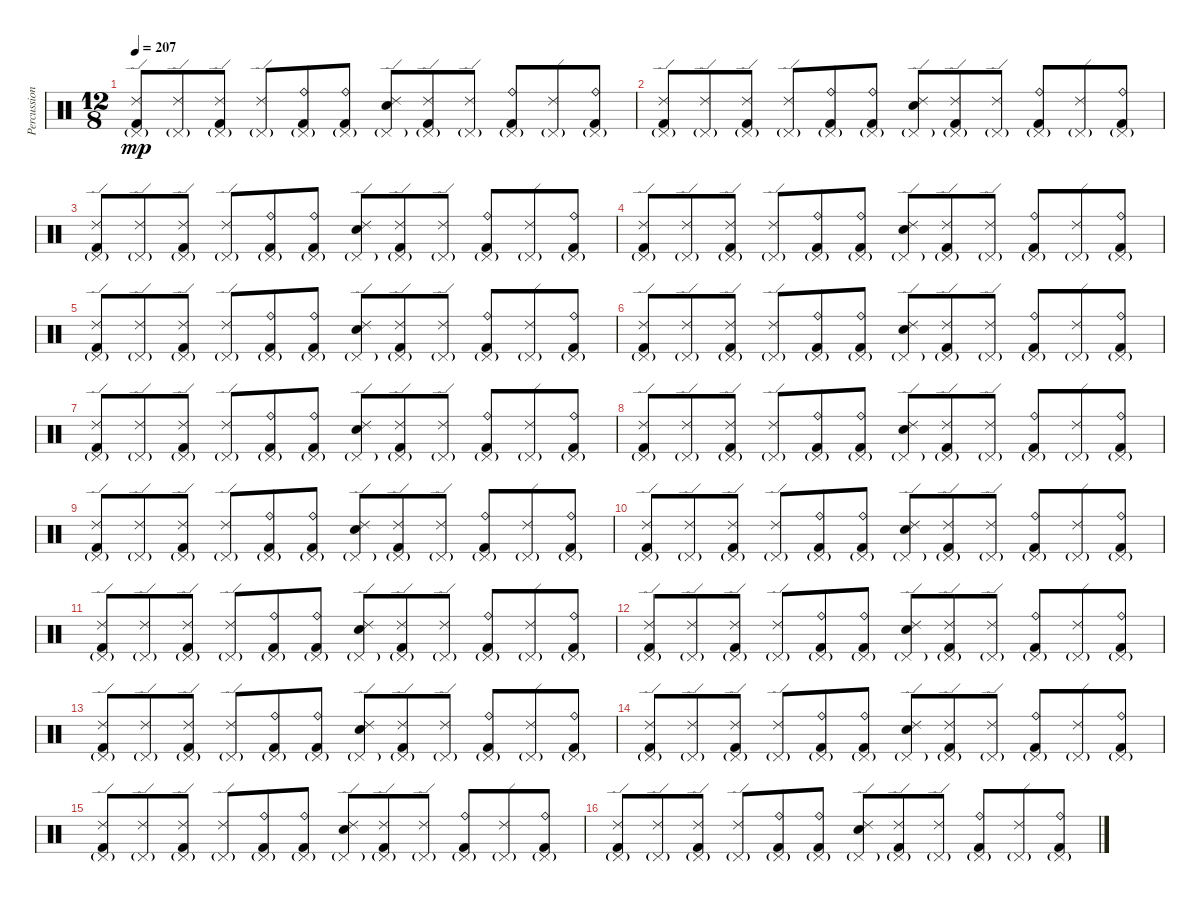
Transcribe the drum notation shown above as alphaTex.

\track ("Percussion" "Percussion") {instrument percussion}
\staff {score}
\articulation defaults
\ts (12 8)
\tempo 207
\clef neutral
\ks c
("Ride (edge) 2" "Pedal Hi-Hat (hit)"{g} "Kick (hit) 2").8{dy mp} ("Ride (edge) 2" "Pedal Hi-Hat (hit)"{g}).8 ("Ride (edge) 2" "Pedal Hi-Hat (hit)"{g} "Kick (hit) 2").8 ("Ride (edge) 2" "Pedal Hi-Hat (hit)"{g}).8 ("Ride (bell)" "Pedal Hi-Hat (hit)"{g} "Kick (hit) 2").8 ("Ride (bell)" "Pedal Hi-Hat (hit)"{g} "Kick (hit) 2").8 ("Ride (edge) 2" "Pedal Hi-Hat (hit)"{g} "Electric Snare (hit)").8 ("Ride (edge) 2" "Pedal Hi-Hat (hit)"{g} "Kick (hit) 2").8 ("Ride (edge) 2" "Pedal Hi-Hat (hit)"{g}).8 ("Ride (bell)" "Pedal Hi-Hat (hit)"{g} "Kick (hit) 2").8 ("Ride (edge) 2" "Pedal Hi-Hat (hit)"{g}).8 ("Ride (bell)" "Pedal Hi-Hat (hit)"{g} "Kick (hit) 2").8 |
("Ride (edge) 2" "Pedal Hi-Hat (hit)"{g} "Kick (hit) 2").8 ("Ride (edge) 2" "Pedal Hi-Hat (hit)"{g}).8 ("Ride (edge) 2" "Pedal Hi-Hat (hit)"{g} "Kick (hit) 2").8 ("Ride (edge) 2" "Pedal Hi-Hat (hit)"{g}).8 ("Ride (bell)" "Pedal Hi-Hat (hit)"{g} "Kick (hit) 2").8 ("Ride (bell)" "Pedal Hi-Hat (hit)"{g} "Kick (hit) 2").8 ("Ride (edge) 2" "Pedal Hi-Hat (hit)"{g} "Electric Snare (hit)").8 ("Ride (edge) 2" "Pedal Hi-Hat (hit)"{g} "Kick (hit) 2").8 ("Ride (edge) 2" "Pedal Hi-Hat (hit)"{g}).8 ("Ride (bell)" "Pedal Hi-Hat (hit)"{g} "Kick (hit) 2").8 ("Ride (edge) 2" "Pedal Hi-Hat (hit)"{g}).8 ("Ride (bell)" "Pedal Hi-Hat (hit)"{g} "Kick (hit) 2").8 |
("Ride (edge) 2" "Pedal Hi-Hat (hit)"{g} "Kick (hit) 2").8 ("Ride (edge) 2" "Pedal Hi-Hat (hit)"{g}).8 ("Ride (edge) 2" "Pedal Hi-Hat (hit)"{g} "Kick (hit) 2").8 ("Ride (edge) 2" "Pedal Hi-Hat (hit)"{g}).8 ("Ride (bell)" "Pedal Hi-Hat (hit)"{g} "Kick (hit) 2").8 ("Ride (bell)" "Pedal Hi-Hat (hit)"{g} "Kick (hit) 2").8 ("Ride (edge) 2" "Pedal Hi-Hat (hit)"{g} "Electric Snare (hit)").8 ("Ride (edge) 2" "Pedal Hi-Hat (hit)"{g} "Kick (hit) 2").8 ("Ride (edge) 2" "Pedal Hi-Hat (hit)"{g}).8 ("Ride (bell)" "Pedal Hi-Hat (hit)"{g} "Kick (hit) 2").8 ("Ride (edge) 2" "Pedal Hi-Hat (hit)"{g}).8 ("Ride (bell)" "Pedal Hi-Hat (hit)"{g} "Kick (hit) 2").8 |
("Ride (edge) 2" "Pedal Hi-Hat (hit)"{g} "Kick (hit) 2").8 ("Ride (edge) 2" "Pedal Hi-Hat (hit)"{g}).8 ("Ride (edge) 2" "Pedal Hi-Hat (hit)"{g} "Kick (hit) 2").8 ("Ride (edge) 2" "Pedal Hi-Hat (hit)"{g}).8 ("Ride (bell)" "Pedal Hi-Hat (hit)"{g} "Kick (hit) 2").8 ("Ride (bell)" "Pedal Hi-Hat (hit)"{g} "Kick (hit) 2").8 ("Ride (edge) 2" "Pedal Hi-Hat (hit)"{g} "Electric Snare (hit)").8 ("Ride (edge) 2" "Pedal Hi-Hat (hit)"{g} "Kick (hit) 2").8 ("Ride (edge) 2" "Pedal Hi-Hat (hit)"{g}).8 ("Ride (bell)" "Pedal Hi-Hat (hit)"{g} "Kick (hit) 2").8 ("Ride (edge) 2" "Pedal Hi-Hat (hit)"{g}).8 ("Ride (bell)" "Pedal Hi-Hat (hit)"{g} "Kick (hit) 2").8 |
("Ride (edge) 2" "Pedal Hi-Hat (hit)"{g} "Kick (hit) 2").8 ("Ride (edge) 2" "Pedal Hi-Hat (hit)"{g}).8 ("Ride (edge) 2" "Pedal Hi-Hat (hit)"{g} "Kick (hit) 2").8 ("Ride (edge) 2" "Pedal Hi-Hat (hit)"{g}).8 ("Ride (bell)" "Pedal Hi-Hat (hit)"{g} "Kick (hit) 2").8 ("Ride (bell)" "Pedal Hi-Hat (hit)"{g} "Kick (hit) 2").8 ("Ride (edge) 2" "Pedal Hi-Hat (hit)"{g} "Electric Snare (hit)").8 ("Ride (edge) 2" "Pedal Hi-Hat (hit)"{g} "Kick (hit) 2").8 ("Ride (edge) 2" "Pedal Hi-Hat (hit)"{g}).8 ("Ride (bell)" "Pedal Hi-Hat (hit)"{g} "Kick (hit) 2").8 ("Ride (edge) 2" "Pedal Hi-Hat (hit)"{g}).8 ("Ride (bell)" "Pedal Hi-Hat (hit)"{g} "Kick (hit) 2").8 |
("Ride (edge) 2" "Pedal Hi-Hat (hit)"{g} "Kick (hit) 2").8 ("Ride (edge) 2" "Pedal Hi-Hat (hit)"{g}).8 ("Ride (edge) 2" "Pedal Hi-Hat (hit)"{g} "Kick (hit) 2").8 ("Ride (edge) 2" "Pedal Hi-Hat (hit)"{g}).8 ("Ride (bell)" "Pedal Hi-Hat (hit)"{g} "Kick (hit) 2").8 ("Ride (bell)" "Pedal Hi-Hat (hit)"{g} "Kick (hit) 2").8 ("Ride (edge) 2" "Pedal Hi-Hat (hit)"{g} "Electric Snare (hit)").8 ("Ride (edge) 2" "Pedal Hi-Hat (hit)"{g} "Kick (hit) 2").8 ("Ride (edge) 2" "Pedal Hi-Hat (hit)"{g}).8 ("Ride (bell)" "Pedal Hi-Hat (hit)"{g} "Kick (hit) 2").8 ("Ride (edge) 2" "Pedal Hi-Hat (hit)"{g}).8 ("Ride (bell)" "Pedal Hi-Hat (hit)"{g} "Kick (hit) 2").8 |
("Ride (edge) 2" "Pedal Hi-Hat (hit)"{g} "Kick (hit) 2").8 ("Ride (edge) 2" "Pedal Hi-Hat (hit)"{g}).8 ("Ride (edge) 2" "Pedal Hi-Hat (hit)"{g} "Kick (hit) 2").8 ("Ride (edge) 2" "Pedal Hi-Hat (hit)"{g}).8 ("Ride (bell)" "Pedal Hi-Hat (hit)"{g} "Kick (hit) 2").8 ("Ride (bell)" "Pedal Hi-Hat (hit)"{g} "Kick (hit) 2").8 ("Ride (edge) 2" "Pedal Hi-Hat (hit)"{g} "Electric Snare (hit)").8 ("Ride (edge) 2" "Pedal Hi-Hat (hit)"{g} "Kick (hit) 2").8 ("Ride (edge) 2" "Pedal Hi-Hat (hit)"{g}).8 ("Ride (bell)" "Pedal Hi-Hat (hit)"{g} "Kick (hit) 2").8 ("Ride (edge) 2" "Pedal Hi-Hat (hit)"{g}).8 ("Ride (bell)" "Pedal Hi-Hat (hit)"{g} "Kick (hit) 2").8 |
("Ride (edge) 2" "Pedal Hi-Hat (hit)"{g} "Kick (hit) 2").8 ("Ride (edge) 2" "Pedal Hi-Hat (hit)"{g}).8 ("Ride (edge) 2" "Pedal Hi-Hat (hit)"{g} "Kick (hit) 2").8 ("Ride (edge) 2" "Pedal Hi-Hat (hit)"{g}).8 ("Ride (bell)" "Pedal Hi-Hat (hit)"{g} "Kick (hit) 2").8 ("Ride (bell)" "Pedal Hi-Hat (hit)"{g} "Kick (hit) 2").8 ("Ride (edge) 2" "Pedal Hi-Hat (hit)"{g} "Electric Snare (hit)").8 ("Ride (edge) 2" "Pedal Hi-Hat (hit)"{g} "Kick (hit) 2").8 ("Ride (edge) 2" "Pedal Hi-Hat (hit)"{g}).8 ("Ride (bell)" "Pedal Hi-Hat (hit)"{g} "Kick (hit) 2").8 ("Ride (edge) 2" "Pedal Hi-Hat (hit)"{g}).8 ("Ride (bell)" "Pedal Hi-Hat (hit)"{g} "Kick (hit) 2").8 |
("Ride (edge) 2" "Pedal Hi-Hat (hit)"{g} "Kick (hit) 2").8 ("Ride (edge) 2" "Pedal Hi-Hat (hit)"{g}).8 ("Ride (edge) 2" "Pedal Hi-Hat (hit)"{g} "Kick (hit) 2").8 ("Ride (edge) 2" "Pedal Hi-Hat (hit)"{g}).8 ("Ride (bell)" "Pedal Hi-Hat (hit)"{g} "Kick (hit) 2").8 ("Ride (bell)" "Pedal Hi-Hat (hit)"{g} "Kick (hit) 2").8 ("Ride (edge) 2" "Pedal Hi-Hat (hit)"{g} "Electric Snare (hit)").8 ("Ride (edge) 2" "Pedal Hi-Hat (hit)"{g} "Kick (hit) 2").8 ("Ride (edge) 2" "Pedal Hi-Hat (hit)"{g}).8 ("Ride (bell)" "Pedal Hi-Hat (hit)"{g} "Kick (hit) 2").8 ("Ride (edge) 2" "Pedal Hi-Hat (hit)"{g}).8 ("Ride (bell)" "Pedal Hi-Hat (hit)"{g} "Kick (hit) 2").8 |
("Ride (edge) 2" "Pedal Hi-Hat (hit)"{g} "Kick (hit) 2").8 ("Ride (edge) 2" "Pedal Hi-Hat (hit)"{g}).8 ("Ride (edge) 2" "Pedal Hi-Hat (hit)"{g} "Kick (hit) 2").8 ("Ride (edge) 2" "Pedal Hi-Hat (hit)"{g}).8 ("Ride (bell)" "Pedal Hi-Hat (hit)"{g} "Kick (hit) 2").8 ("Ride (bell)" "Pedal Hi-Hat (hit)"{g} "Kick (hit) 2").8 ("Ride (edge) 2" "Pedal Hi-Hat (hit)"{g} "Electric Snare (hit)").8 ("Ride (edge) 2" "Pedal Hi-Hat (hit)"{g} "Kick (hit) 2").8 ("Ride (edge) 2" "Pedal Hi-Hat (hit)"{g}).8 ("Ride (bell)" "Pedal Hi-Hat (hit)"{g} "Kick (hit) 2").8 ("Ride (edge) 2" "Pedal Hi-Hat (hit)"{g}).8 ("Ride (bell)" "Pedal Hi-Hat (hit)"{g} "Kick (hit) 2").8 |
("Ride (edge) 2" "Pedal Hi-Hat (hit)"{g} "Kick (hit) 2").8 ("Ride (edge) 2" "Pedal Hi-Hat (hit)"{g}).8 ("Ride (edge) 2" "Pedal Hi-Hat (hit)"{g} "Kick (hit) 2").8 ("Ride (edge) 2" "Pedal Hi-Hat (hit)"{g}).8 ("Ride (bell)" "Pedal Hi-Hat (hit)"{g} "Kick (hit) 2").8 ("Ride (bell)" "Pedal Hi-Hat (hit)"{g} "Kick (hit) 2").8 ("Ride (edge) 2" "Pedal Hi-Hat (hit)"{g} "Electric Snare (hit)").8 ("Ride (edge) 2" "Pedal Hi-Hat (hit)"{g} "Kick (hit) 2").8 ("Ride (edge) 2" "Pedal Hi-Hat (hit)"{g}).8 ("Ride (bell)" "Pedal Hi-Hat (hit)"{g} "Kick (hit) 2").8 ("Ride (edge) 2" "Pedal Hi-Hat (hit)"{g}).8 ("Ride (bell)" "Pedal Hi-Hat (hit)"{g} "Kick (hit) 2").8 |
("Ride (edge) 2" "Pedal Hi-Hat (hit)"{g} "Kick (hit) 2").8 ("Ride (edge) 2" "Pedal Hi-Hat (hit)"{g}).8 ("Ride (edge) 2" "Pedal Hi-Hat (hit)"{g} "Kick (hit) 2").8 ("Ride (edge) 2" "Pedal Hi-Hat (hit)"{g}).8 ("Ride (bell)" "Pedal Hi-Hat (hit)"{g} "Kick (hit) 2").8 ("Ride (bell)" "Pedal Hi-Hat (hit)"{g} "Kick (hit) 2").8 ("Ride (edge) 2" "Pedal Hi-Hat (hit)"{g} "Electric Snare (hit)").8 ("Ride (edge) 2" "Pedal Hi-Hat (hit)"{g} "Kick (hit) 2").8 ("Ride (edge) 2" "Pedal Hi-Hat (hit)"{g}).8 ("Ride (bell)" "Pedal Hi-Hat (hit)"{g} "Kick (hit) 2").8 ("Ride (edge) 2" "Pedal Hi-Hat (hit)"{g}).8 ("Ride (bell)" "Pedal Hi-Hat (hit)"{g} "Kick (hit) 2").8 |
("Ride (edge) 2" "Pedal Hi-Hat (hit)"{g} "Kick (hit) 2").8 ("Ride (edge) 2" "Pedal Hi-Hat (hit)"{g}).8 ("Ride (edge) 2" "Pedal Hi-Hat (hit)"{g} "Kick (hit) 2").8 ("Ride (edge) 2" "Pedal Hi-Hat (hit)"{g}).8 ("Ride (bell)" "Pedal Hi-Hat (hit)"{g} "Kick (hit) 2").8 ("Ride (bell)" "Pedal Hi-Hat (hit)"{g} "Kick (hit) 2").8 ("Ride (edge) 2" "Pedal Hi-Hat (hit)"{g} "Electric Snare (hit)").8 ("Ride (edge) 2" "Pedal Hi-Hat (hit)"{g} "Kick (hit) 2").8 ("Ride (edge) 2" "Pedal Hi-Hat (hit)"{g}).8 ("Ride (bell)" "Pedal Hi-Hat (hit)"{g} "Kick (hit) 2").8 ("Ride (edge) 2" "Pedal Hi-Hat (hit)"{g}).8 ("Ride (bell)" "Pedal Hi-Hat (hit)"{g} "Kick (hit) 2").8 |
("Ride (edge) 2" "Pedal Hi-Hat (hit)"{g} "Kick (hit) 2").8 ("Ride (edge) 2" "Pedal Hi-Hat (hit)"{g}).8 ("Ride (edge) 2" "Pedal Hi-Hat (hit)"{g} "Kick (hit) 2").8 ("Ride (edge) 2" "Pedal Hi-Hat (hit)"{g}).8 ("Ride (bell)" "Pedal Hi-Hat (hit)"{g} "Kick (hit) 2").8 ("Ride (bell)" "Pedal Hi-Hat (hit)"{g} "Kick (hit) 2").8 ("Ride (edge) 2" "Pedal Hi-Hat (hit)"{g} "Electric Snare (hit)").8 ("Ride (edge) 2" "Pedal Hi-Hat (hit)"{g} "Kick (hit) 2").8 ("Ride (edge) 2" "Pedal Hi-Hat (hit)"{g}).8 ("Ride (bell)" "Pedal Hi-Hat (hit)"{g} "Kick (hit) 2").8 ("Ride (edge) 2" "Pedal Hi-Hat (hit)"{g}).8 ("Ride (bell)" "Pedal Hi-Hat (hit)"{g} "Kick (hit) 2").8 |
("Ride (edge) 2" "Pedal Hi-Hat (hit)"{g} "Kick (hit) 2").8 ("Ride (edge) 2" "Pedal Hi-Hat (hit)"{g}).8 ("Ride (edge) 2" "Pedal Hi-Hat (hit)"{g} "Kick (hit) 2").8 ("Ride (edge) 2" "Pedal Hi-Hat (hit)"{g}).8 ("Ride (bell)" "Pedal Hi-Hat (hit)"{g} "Kick (hit) 2").8 ("Ride (bell)" "Pedal Hi-Hat (hit)"{g} "Kick (hit) 2").8 ("Ride (edge) 2" "Pedal Hi-Hat (hit)"{g} "Electric Snare (hit)").8 ("Ride (edge) 2" "Pedal Hi-Hat (hit)"{g} "Kick (hit) 2").8 ("Ride (edge) 2" "Pedal Hi-Hat (hit)"{g}).8 ("Ride (bell)" "Pedal Hi-Hat (hit)"{g} "Kick (hit) 2").8 ("Ride (edge) 2" "Pedal Hi-Hat (hit)"{g}).8 ("Ride (bell)" "Pedal Hi-Hat (hit)"{g} "Kick (hit) 2").8 |
("Ride (edge) 2" "Pedal Hi-Hat (hit)"{g} "Kick (hit) 2").8 ("Ride (edge) 2" "Pedal Hi-Hat (hit)"{g}).8 ("Ride (edge) 2" "Pedal Hi-Hat (hit)"{g} "Kick (hit) 2").8 ("Ride (edge) 2" "Pedal Hi-Hat (hit)"{g}).8 ("Ride (bell)" "Pedal Hi-Hat (hit)"{g} "Kick (hit) 2").8 ("Ride (bell)" "Pedal Hi-Hat (hit)"{g} "Kick (hit) 2").8 ("Ride (edge) 2" "Pedal Hi-Hat (hit)"{g} "Electric Snare (hit)").8 ("Ride (edge) 2" "Pedal Hi-Hat (hit)"{g} "Kick (hit) 2").8 ("Ride (edge) 2" "Pedal Hi-Hat (hit)"{g}).8 ("Ride (bell)" "Pedal Hi-Hat (hit)"{g} "Kick (hit) 2").8 ("Ride (edge) 2" "Pedal Hi-Hat (hit)"{g}).8 ("Ride (bell)" "Pedal Hi-Hat (hit)"{g} "Kick (hit) 2").8
